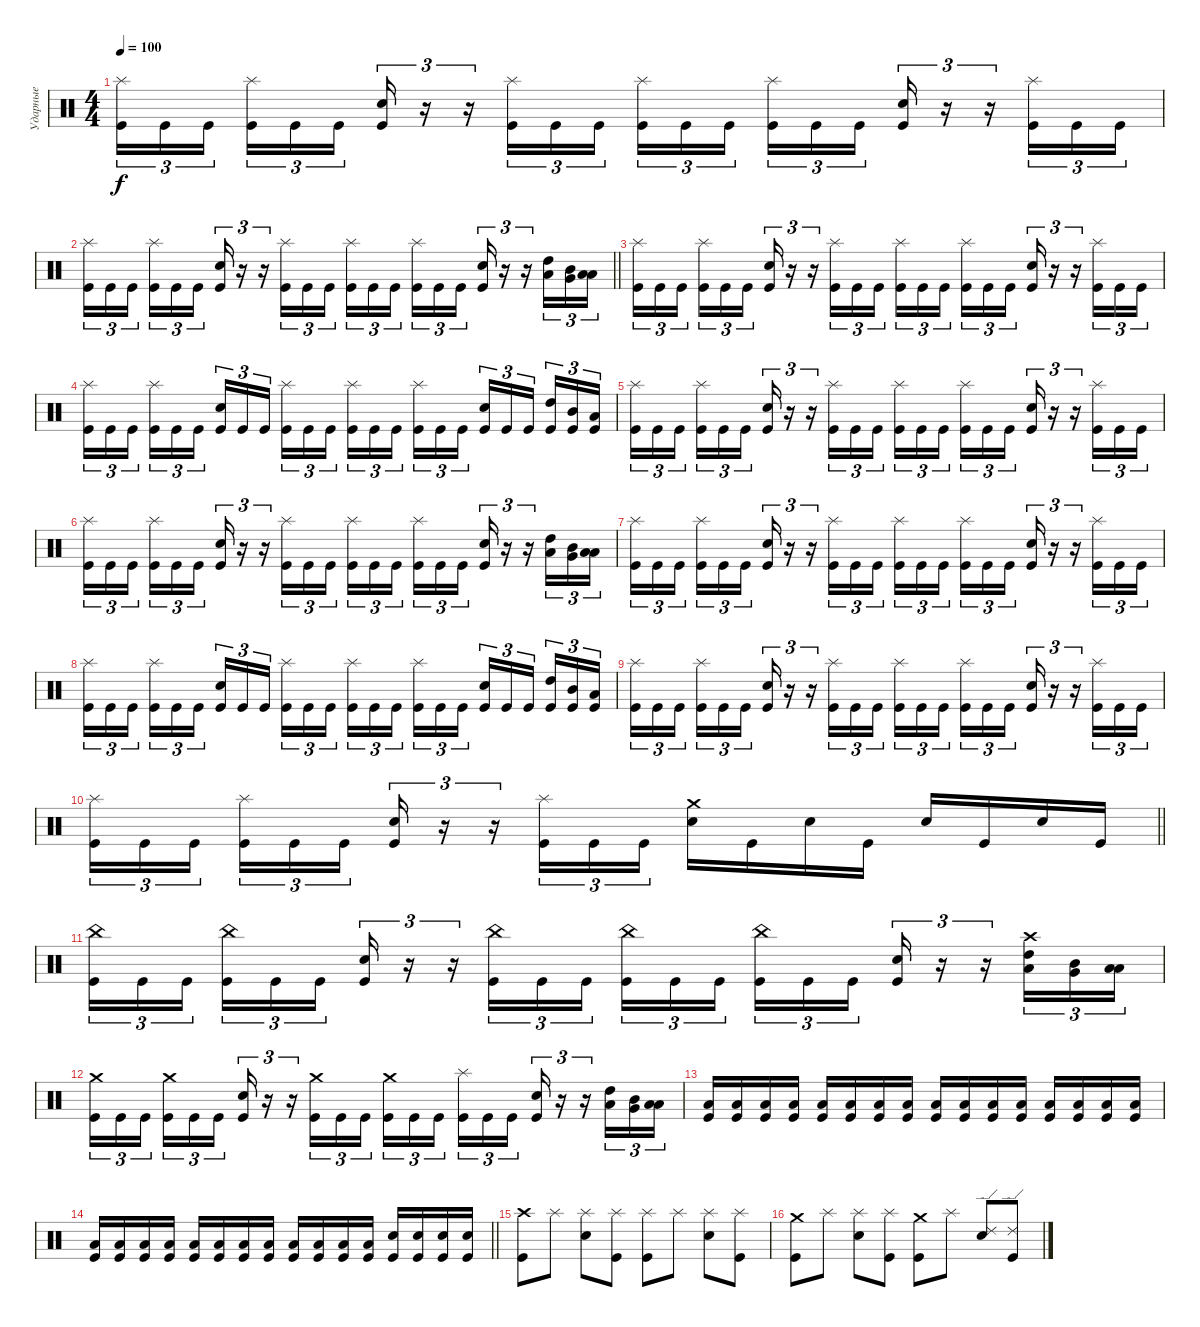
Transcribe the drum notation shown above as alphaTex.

\track ("Ударные" "Ударные") {instrument percussion}
\staff {score}
\articulation defaults
\ts (4 4)
\tempo 100
\clef neutral
\ks c
("Splash (hit)" "Kick (hit)").16{tu (3 2) dy f} "Kick (hit)".16{tu (3 2)} "Kick (hit)".16{tu (3 2) beam splitsecondary} ("Splash (hit)" "Kick (hit)").16{tu (3 2)} "Kick (hit)".16{tu (3 2)} "Kick (hit)".16{tu (3 2)} ("Electric Snare (hit)" "Kick (hit)").16{tu (3 2)} r.16{tu (3 2)} r.16{tu (3 2)} ("Splash (hit)" "Kick (hit)").16{tu (3 2)} "Kick (hit)".16{tu (3 2)} "Kick (hit)".16{tu (3 2)} ("Splash (hit)" "Kick (hit)").16{tu (3 2)} "Kick (hit)".16{tu (3 2)} "Kick (hit)".16{tu (3 2) beam splitsecondary} ("Splash (hit)" "Kick (hit)").16{tu (3 2)} "Kick (hit)".16{tu (3 2)} "Kick (hit)".16{tu (3 2)} ("Electric Snare (hit)" "Kick (hit)").16{tu (3 2)} r.16{tu (3 2)} r.16{tu (3 2)} ("Splash (hit)" "Kick (hit)").16{tu (3 2)} "Kick (hit)".16{tu (3 2)} "Kick (hit)".16{tu (3 2)} |
\barLineRight lightlight
("Splash (hit)" "Kick (hit)").16{tu (3 2)} "Kick (hit)".16{tu (3 2)} "Kick (hit)".16{tu (3 2) beam splitsecondary} ("Splash (hit)" "Kick (hit)").16{tu (3 2)} "Kick (hit)".16{tu (3 2)} "Kick (hit)".16{tu (3 2)} ("Electric Snare (hit)" "Kick (hit)").16{tu (3 2)} r.16{tu (3 2)} r.16{tu (3 2)} ("Splash (hit)" "Kick (hit)").16{tu (3 2)} "Kick (hit)".16{tu (3 2)} "Kick (hit)".16{tu (3 2)} ("Splash (hit)" "Kick (hit)").16{tu (3 2)} "Kick (hit)".16{tu (3 2)} "Kick (hit)".16{tu (3 2) beam splitsecondary} ("Splash (hit)" "Kick (hit)").16{tu (3 2)} "Kick (hit)".16{tu (3 2)} "Kick (hit)".16{tu (3 2)} ("Electric Snare (hit)" "Kick (hit)").16{tu (3 2)} r.16{tu (3 2)} r.16{tu (3 2)} ("High Tom (hit)" "Low Tom (hit)").16{tu (3 2)} ("Mid Tom (hit)" "Very Low Tom (hit)").16{tu (3 2)} ("Low Tom (hit)" "Low Floor Tom (hit)").16{tu (3 2)} |
\section ("" " ")
("Splash (hit)" "Kick (hit)").16{tu (3 2)} "Kick (hit)".16{tu (3 2)} "Kick (hit)".16{tu (3 2) beam splitsecondary} ("Splash (hit)" "Kick (hit)").16{tu (3 2)} "Kick (hit)".16{tu (3 2)} "Kick (hit)".16{tu (3 2)} ("Electric Snare (hit)" "Kick (hit)").16{tu (3 2)} r.16{tu (3 2)} r.16{tu (3 2)} ("Splash (hit)" "Kick (hit)").16{tu (3 2)} "Kick (hit)".16{tu (3 2)} "Kick (hit)".16{tu (3 2)} ("Splash (hit)" "Kick (hit)").16{tu (3 2)} "Kick (hit)".16{tu (3 2)} "Kick (hit)".16{tu (3 2) beam splitsecondary} ("Splash (hit)" "Kick (hit)").16{tu (3 2)} "Kick (hit)".16{tu (3 2)} "Kick (hit)".16{tu (3 2)} ("Electric Snare (hit)" "Kick (hit)").16{tu (3 2)} r.16{tu (3 2)} r.16{tu (3 2)} ("Splash (hit)" "Kick (hit)").16{tu (3 2)} "Kick (hit)".16{tu (3 2)} "Kick (hit)".16{tu (3 2)} |
("Splash (hit)" "Kick (hit)").16{tu (3 2)} "Kick (hit)".16{tu (3 2)} "Kick (hit)".16{tu (3 2) beam splitsecondary} ("Splash (hit)" "Kick (hit)").16{tu (3 2)} "Kick (hit)".16{tu (3 2)} "Kick (hit)".16{tu (3 2)} ("Electric Snare (hit)" "Kick (hit)").16{tu (3 2)} "Kick (hit)".16{tu (3 2)} "Kick (hit)".16{tu (3 2) beam splitsecondary} ("Splash (hit)" "Kick (hit)").16{tu (3 2)} "Kick (hit)".16{tu (3 2)} "Kick (hit)".16{tu (3 2)} ("Splash (hit)" "Kick (hit)").16{tu (3 2)} "Kick (hit)".16{tu (3 2)} "Kick (hit)".16{tu (3 2) beam splitsecondary} ("Splash (hit)" "Kick (hit)").16{tu (3 2)} "Kick (hit)".16{tu (3 2)} "Kick (hit)".16{tu (3 2)} ("Electric Snare (hit)" "Kick (hit)").16{tu (3 2)} "Kick (hit)".16{tu (3 2)} "Kick (hit)".16{tu (3 2) beam splitsecondary} ("High Tom (hit)" "Kick (hit)").16{tu (3 2)} ("Mid Tom (hit)" "Kick (hit)").16{tu (3 2)} ("Low Tom (hit)" "Kick (hit)").16{tu (3 2)} |
("Splash (hit)" "Kick (hit)").16{tu (3 2)} "Kick (hit)".16{tu (3 2)} "Kick (hit)".16{tu (3 2) beam splitsecondary} ("Splash (hit)" "Kick (hit)").16{tu (3 2)} "Kick (hit)".16{tu (3 2)} "Kick (hit)".16{tu (3 2)} ("Electric Snare (hit)" "Kick (hit)").16{tu (3 2)} r.16{tu (3 2)} r.16{tu (3 2)} ("Splash (hit)" "Kick (hit)").16{tu (3 2)} "Kick (hit)".16{tu (3 2)} "Kick (hit)".16{tu (3 2)} ("Splash (hit)" "Kick (hit)").16{tu (3 2)} "Kick (hit)".16{tu (3 2)} "Kick (hit)".16{tu (3 2) beam splitsecondary} ("Splash (hit)" "Kick (hit)").16{tu (3 2)} "Kick (hit)".16{tu (3 2)} "Kick (hit)".16{tu (3 2)} ("Electric Snare (hit)" "Kick (hit)").16{tu (3 2)} r.16{tu (3 2)} r.16{tu (3 2)} ("Splash (hit)" "Kick (hit)").16{tu (3 2)} "Kick (hit)".16{tu (3 2)} "Kick (hit)".16{tu (3 2)} |
("Splash (hit)" "Kick (hit)").16{tu (3 2)} "Kick (hit)".16{tu (3 2)} "Kick (hit)".16{tu (3 2) beam splitsecondary} ("Splash (hit)" "Kick (hit)").16{tu (3 2)} "Kick (hit)".16{tu (3 2)} "Kick (hit)".16{tu (3 2)} ("Electric Snare (hit)" "Kick (hit)").16{tu (3 2)} r.16{tu (3 2)} r.16{tu (3 2)} ("Splash (hit)" "Kick (hit)").16{tu (3 2)} "Kick (hit)".16{tu (3 2)} "Kick (hit)".16{tu (3 2)} ("Splash (hit)" "Kick (hit)").16{tu (3 2)} "Kick (hit)".16{tu (3 2)} "Kick (hit)".16{tu (3 2) beam splitsecondary} ("Splash (hit)" "Kick (hit)").16{tu (3 2)} "Kick (hit)".16{tu (3 2)} "Kick (hit)".16{tu (3 2)} ("Electric Snare (hit)" "Kick (hit)").16{tu (3 2)} r.16{tu (3 2)} r.16{tu (3 2)} ("High Tom (hit)" "Low Tom (hit)").16{tu (3 2)} ("Mid Tom (hit)" "Very Low Tom (hit)").16{tu (3 2)} ("Low Tom (hit)" "Low Floor Tom (hit)").16{tu (3 2)} |
("Splash (hit)" "Kick (hit)").16{tu (3 2)} "Kick (hit)".16{tu (3 2)} "Kick (hit)".16{tu (3 2) beam splitsecondary} ("Splash (hit)" "Kick (hit)").16{tu (3 2)} "Kick (hit)".16{tu (3 2)} "Kick (hit)".16{tu (3 2)} ("Electric Snare (hit)" "Kick (hit)").16{tu (3 2)} r.16{tu (3 2)} r.16{tu (3 2)} ("Splash (hit)" "Kick (hit)").16{tu (3 2)} "Kick (hit)".16{tu (3 2)} "Kick (hit)".16{tu (3 2)} ("Splash (hit)" "Kick (hit)").16{tu (3 2)} "Kick (hit)".16{tu (3 2)} "Kick (hit)".16{tu (3 2) beam splitsecondary} ("Splash (hit)" "Kick (hit)").16{tu (3 2)} "Kick (hit)".16{tu (3 2)} "Kick (hit)".16{tu (3 2)} ("Electric Snare (hit)" "Kick (hit)").16{tu (3 2)} r.16{tu (3 2)} r.16{tu (3 2)} ("Splash (hit)" "Kick (hit)").16{tu (3 2)} "Kick (hit)".16{tu (3 2)} "Kick (hit)".16{tu (3 2)} |
("Splash (hit)" "Kick (hit)").16{tu (3 2)} "Kick (hit)".16{tu (3 2)} "Kick (hit)".16{tu (3 2) beam splitsecondary} ("Splash (hit)" "Kick (hit)").16{tu (3 2)} "Kick (hit)".16{tu (3 2)} "Kick (hit)".16{tu (3 2)} ("Electric Snare (hit)" "Kick (hit)").16{tu (3 2)} "Kick (hit)".16{tu (3 2)} "Kick (hit)".16{tu (3 2) beam splitsecondary} ("Splash (hit)" "Kick (hit)").16{tu (3 2)} "Kick (hit)".16{tu (3 2)} "Kick (hit)".16{tu (3 2)} ("Splash (hit)" "Kick (hit)").16{tu (3 2)} "Kick (hit)".16{tu (3 2)} "Kick (hit)".16{tu (3 2) beam splitsecondary} ("Splash (hit)" "Kick (hit)").16{tu (3 2)} "Kick (hit)".16{tu (3 2)} "Kick (hit)".16{tu (3 2)} ("Electric Snare (hit)" "Kick (hit)").16{tu (3 2)} "Kick (hit)".16{tu (3 2)} "Kick (hit)".16{tu (3 2) beam splitsecondary} ("High Tom (hit)" "Kick (hit)").16{tu (3 2)} ("Mid Tom (hit)" "Kick (hit)").16{tu (3 2)} ("Low Tom (hit)" "Kick (hit)").16{tu (3 2)} |
("Splash (hit)" "Kick (hit)").16{tu (3 2)} "Kick (hit)".16{tu (3 2)} "Kick (hit)".16{tu (3 2) beam splitsecondary} ("Splash (hit)" "Kick (hit)").16{tu (3 2)} "Kick (hit)".16{tu (3 2)} "Kick (hit)".16{tu (3 2)} ("Electric Snare (hit)" "Kick (hit)").16{tu (3 2)} r.16{tu (3 2)} r.16{tu (3 2)} ("Splash (hit)" "Kick (hit)").16{tu (3 2)} "Kick (hit)".16{tu (3 2)} "Kick (hit)".16{tu (3 2)} ("Splash (hit)" "Kick (hit)").16{tu (3 2)} "Kick (hit)".16{tu (3 2)} "Kick (hit)".16{tu (3 2) beam splitsecondary} ("Splash (hit)" "Kick (hit)").16{tu (3 2)} "Kick (hit)".16{tu (3 2)} "Kick (hit)".16{tu (3 2)} ("Electric Snare (hit)" "Kick (hit)").16{tu (3 2)} r.16{tu (3 2)} r.16{tu (3 2)} ("Splash (hit)" "Kick (hit)").16{tu (3 2)} "Kick (hit)".16{tu (3 2)} "Kick (hit)".16{tu (3 2)} |
\barLineRight lightlight
("Splash (hit)" "Kick (hit)").16{tu (3 2)} "Kick (hit)".16{tu (3 2)} "Kick (hit)".16{tu (3 2) beam splitsecondary} ("Splash (hit)" "Kick (hit)").16{tu (3 2)} "Kick (hit)".16{tu (3 2)} "Kick (hit)".16{tu (3 2)} ("Electric Snare (hit)" "Kick (hit)").16{tu (3 2)} r.16{tu (3 2)} r.16{tu (3 2)} ("Splash (hit)" "Kick (hit)").16{tu (3 2)} "Kick (hit)".16{tu (3 2)} "Kick (hit)".16{tu (3 2)} ("Electric Snare (hit)" "Crash medium (hit)").16 "Kick (hit)".16 "Electric Snare (hit)".16 "Kick (hit)".16 "Electric Snare (hit)".16 "Kick (hit)".16 "Electric Snare (hit)".16 "Kick (hit)".16 |
\section ("" " ")
("China (hit)" "Kick (hit)").16{tu (3 2)} "Kick (hit)".16{tu (3 2)} "Kick (hit)".16{tu (3 2) beam splitsecondary} ("China (hit)" "Kick (hit)").16{tu (3 2)} "Kick (hit)".16{tu (3 2)} "Kick (hit)".16{tu (3 2)} ("Electric Snare (hit)" "Kick (hit)").16{tu (3 2)} r.16{tu (3 2)} r.16{tu (3 2)} ("China (hit)" "Kick (hit)").16{tu (3 2)} "Kick (hit)".16{tu (3 2)} "Kick (hit)".16{tu (3 2)} ("China (hit)" "Kick (hit)").16{tu (3 2)} "Kick (hit)".16{tu (3 2)} "Kick (hit)".16{tu (3 2) beam splitsecondary} ("China (hit)" "Kick (hit)").16{tu (3 2)} "Kick (hit)".16{tu (3 2)} "Kick (hit)".16{tu (3 2)} ("Electric Snare (hit)" "Kick (hit)").16{tu (3 2)} r.16{tu (3 2)} r.16{tu (3 2)} ("High Tom (hit)" "Low Tom (hit)" "Crash high (hit)").16{tu (3 2)} ("Mid Tom (hit)" "Very Low Tom (hit)").16{tu (3 2)} ("Low Tom (hit)" "Low Floor Tom (hit)").16{tu (3 2)} |
("Crash medium (hit)" "Kick (hit)").16{tu (3 2)} "Kick (hit)".16{tu (3 2)} "Kick (hit)".16{tu (3 2) beam splitsecondary} ("Crash medium (hit)" "Kick (hit)").16{tu (3 2)} "Kick (hit)".16{tu (3 2)} "Kick (hit)".16{tu (3 2)} ("Electric Snare (hit)" "Kick (hit)").16{tu (3 2)} r.16{tu (3 2)} r.16{tu (3 2)} ("Crash medium (hit)" "Kick (hit)").16{tu (3 2)} "Kick (hit)".16{tu (3 2)} "Kick (hit)".16{tu (3 2)} ("Crash medium (hit)" "Kick (hit)").16{tu (3 2)} "Kick (hit)".16{tu (3 2)} "Kick (hit)".16{tu (3 2) beam splitsecondary} ("Splash (hit)" "Kick (hit)").16{tu (3 2)} "Kick (hit)".16{tu (3 2)} "Kick (hit)".16{tu (3 2)} ("Electric Snare (hit)" "Kick (hit)").16{tu (3 2)} r.16{tu (3 2)} r.16{tu (3 2)} ("High Tom (hit)" "Low Tom (hit)").16{tu (3 2)} ("Mid Tom (hit)" "Very Low Tom (hit)").16{tu (3 2)} ("Low Tom (hit)" "Low Floor Tom (hit)").16{tu (3 2)} |
("Kick (hit)" "Low Floor Tom (hit)").16 ("Kick (hit)" "Low Floor Tom (hit)").16 ("Kick (hit)" "Low Floor Tom (hit)").16 ("Kick (hit)" "Low Floor Tom (hit)").16 ("Kick (hit)" "Low Floor Tom (hit)").16 ("Kick (hit)" "Low Floor Tom (hit)").16 ("Kick (hit)" "Low Floor Tom (hit)").16 ("Kick (hit)" "Low Floor Tom (hit)").16 ("Kick (hit)" "Low Floor Tom (hit)").16 ("Kick (hit)" "Low Floor Tom (hit)").16 ("Kick (hit)" "Low Floor Tom (hit)").16 ("Kick (hit)" "Low Floor Tom (hit)").16 ("Kick (hit)" "Low Floor Tom (hit)").16 ("Kick (hit)" "Low Floor Tom (hit)").16 ("Kick (hit)" "Low Floor Tom (hit)").16 ("Kick (hit)" "Low Floor Tom (hit)").16 |
\barLineRight lightlight
("Kick (hit)" "Low Floor Tom (hit)").16 ("Kick (hit)" "Low Floor Tom (hit)").16 ("Kick (hit)" "Low Floor Tom (hit)").16 ("Kick (hit)" "Low Floor Tom (hit)").16 ("Kick (hit)" "Low Floor Tom (hit)").16 ("Kick (hit)" "Low Floor Tom (hit)").16 ("Kick (hit)" "Low Floor Tom (hit)").16 ("Kick (hit)" "Low Floor Tom (hit)").16 ("Kick (hit)" "Low Floor Tom (hit)").16 ("Kick (hit)" "Low Floor Tom (hit)").16 ("Kick (hit)" "Low Floor Tom (hit)").16 ("Kick (hit)" "Low Floor Tom (hit)").16 ("Kick (hit)" "Electric Snare (hit)").16 ("Kick (hit)" "Electric Snare (hit)").16 ("Kick (hit)" "Electric Snare (hit)").16 ("Kick (hit)" "Electric Snare (hit)").16 |
\section ("" " ")
("Kick (hit)" "Crash high (hit)").8 "Splash (hit)".8 ("Electric Snare (hit)" "Splash (hit)").8 ("Kick (hit)" "Splash (hit)").8 ("Kick (hit)" "Splash (hit)").8 "Splash (hit)".8 ("Electric Snare (hit)" "Splash (hit)").8 ("Kick (hit)" "Splash (hit)").8 |
("Kick (hit)" "Crash medium (hit)").8 "Splash (hit)".8 ("Electric Snare (hit)" "Splash (hit)").8 ("Kick (hit)" "Splash (hit)").8 ("Kick (hit)" "Crash medium (hit)").8 "Splash (hit)".8 ("Electric Snare (hit)" "Ride (edge) 2").8 ("Kick (hit)" "Ride (edge) 2").8
